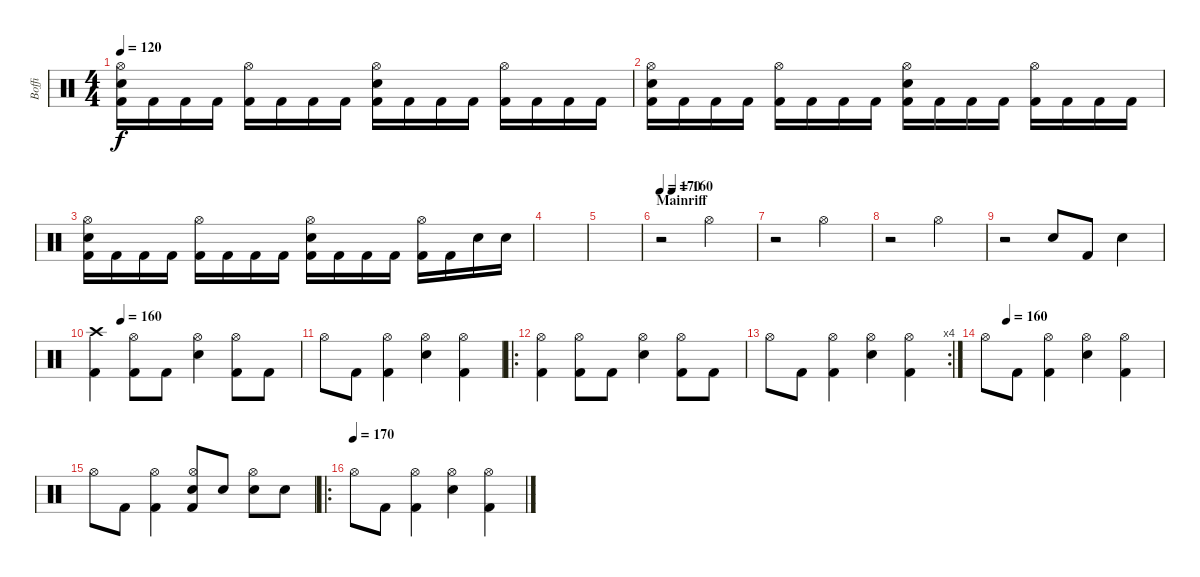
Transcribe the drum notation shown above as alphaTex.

\track ("Boffi" "Boffi") {instrument percussion}
\staff {score}
\articulation defaults
\ts (4 4)
\tempo 120
\clef neutral
\ks c
("Snare (hit) 2" "Kick (hit) 2" "Hi-Hat (open)").16{dy f} "Kick (hit) 2".16 "Kick (hit) 2".16 "Kick (hit) 2".16 ("Kick (hit) 2" "Hi-Hat (open)").16 "Kick (hit) 2".16 "Kick (hit) 2".16 "Kick (hit) 2".16 ("Snare (hit) 2" "Kick (hit) 2" "Hi-Hat (open)").16 "Kick (hit) 2".16 "Kick (hit) 2".16 "Kick (hit) 2".16 ("Kick (hit) 2" "Hi-Hat (open)").16 "Kick (hit) 2".16 "Kick (hit) 2".16 "Kick (hit) 2".16 |
("Snare (hit) 2" "Kick (hit) 2" "Hi-Hat (open)").16 "Kick (hit) 2".16 "Kick (hit) 2".16 "Kick (hit) 2".16 ("Kick (hit) 2" "Hi-Hat (open)").16 "Kick (hit) 2".16 "Kick (hit) 2".16 "Kick (hit) 2".16 ("Snare (hit) 2" "Kick (hit) 2" "Hi-Hat (open)").16 "Kick (hit) 2".16 "Kick (hit) 2".16 "Kick (hit) 2".16 ("Kick (hit) 2" "Hi-Hat (open)").16 "Kick (hit) 2".16 "Kick (hit) 2".16 "Kick (hit) 2".16 |
("Snare (hit) 2" "Kick (hit) 2" "Hi-Hat (open)").16 "Kick (hit) 2".16 "Kick (hit) 2".16 "Kick (hit) 2".16 ("Kick (hit) 2" "Hi-Hat (open)").16 "Kick (hit) 2".16 "Kick (hit) 2".16 "Kick (hit) 2".16 ("Snare (hit) 2" "Kick (hit) 2" "Hi-Hat (open)").16 "Kick (hit) 2".16 "Kick (hit) 2".16 "Kick (hit) 2".16 ("Kick (hit) 2" "Hi-Hat (open)").16 "Kick (hit) 2".16 "Snare (hit) 2".16 "Snare (hit) 2".16 |
|
|
\section ("" "Mainriff")
\tempo 170
\tempo (160 0.125)
r.2 "Hi-Hat (open)".2 |
r.2 "Hi-Hat (open)".2 |
r.2 "Hi-Hat (open)".2 |
r.2 "Electric Snare (hit)".8 "Kick (hit) 2".8 "Electric Snare (hit)".4 |
\tempo (160 0.125)
("Crash high (hit)" "Kick (hit) 2").4 ("Hi-Hat (open)" "Kick (hit) 2").8 "Kick (hit) 2".8 ("Hi-Hat (open)" "Electric Snare (hit)").4 ("Hi-Hat (open)" "Kick (hit) 2").8 "Kick (hit) 2".8 |
"Hi-Hat (open)".8 "Kick (hit) 2".8 ("Hi-Hat (open)" "Kick (hit) 2").4 ("Hi-Hat (open)" "Electric Snare (hit)").4 ("Hi-Hat (open)" "Kick (hit) 2").4 |
\ro
("Hi-Hat (open)" "Kick (hit) 2").4 ("Hi-Hat (open)" "Kick (hit) 2").8 "Kick (hit) 2".8 ("Hi-Hat (open)" "Electric Snare (hit)").4 ("Hi-Hat (open)" "Kick (hit) 2").8 "Kick (hit) 2".8 |
\rc 4 "Hi-Hat (open)".8 "Kick (hit) 2".8
("Hi-Hat (open)" "Kick (hit) 2").4 ("Hi-Hat (open)" "Electric Snare (hit)").4 ("Hi-Hat (open)" "Kick (hit) 2").4 |
\tempo (160 0.125)
"Hi-Hat (open)".8 "Kick (hit) 2".8 ("Hi-Hat (open)" "Kick (hit) 2").4 ("Hi-Hat (open)" "Electric Snare (hit)").4 ("Hi-Hat (open)" "Kick (hit) 2").4 |
"Hi-Hat (open)".8 "Kick (hit) 2".8 ("Hi-Hat (open)" "Kick (hit) 2").4 ("Hi-Hat (open)" "Electric Snare (hit)" "Kick (hit) 2").8 "Snare (hit) 2".8 ("Hi-Hat (open)" "Snare (hit) 2").8 "Snare (hit) 2".8 |
\ro
\tempo (170)
"Hi-Hat (open)".8 "Kick (hit) 2".8 ("Hi-Hat (open)" "Kick (hit) 2").4 ("Hi-Hat (open)" "Electric Snare (hit)").4 ("Hi-Hat (open)" "Kick (hit) 2").4
